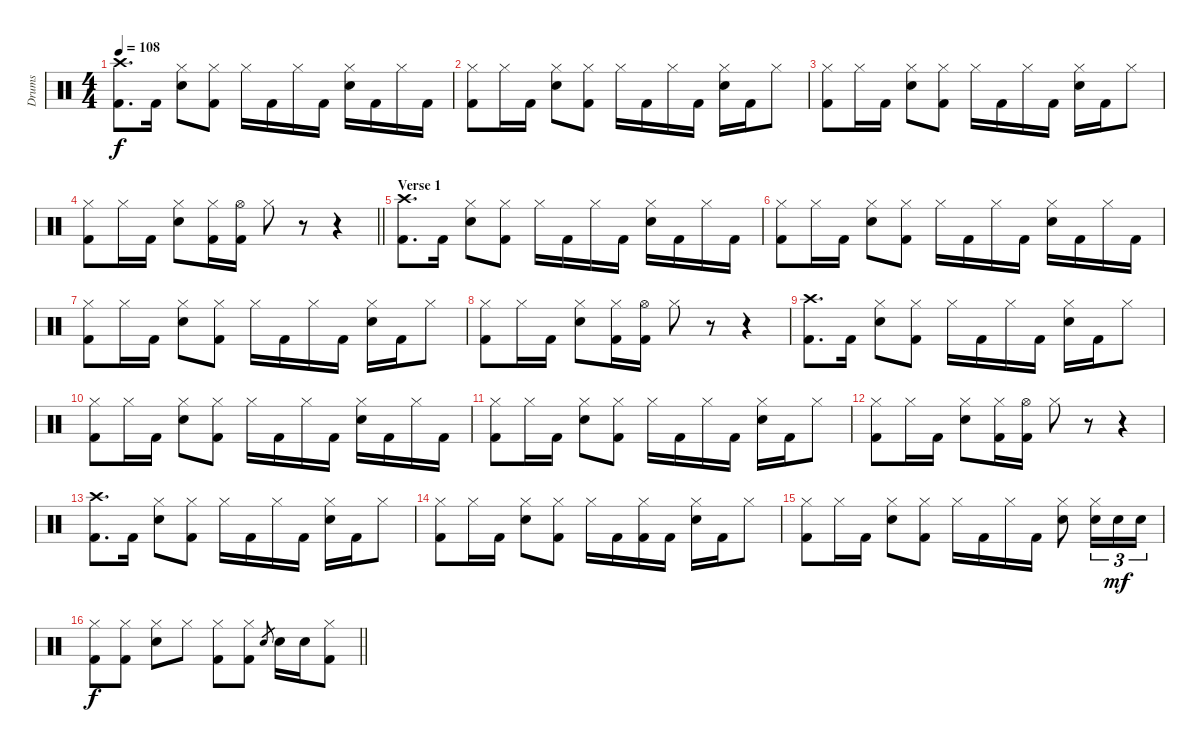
\track ("Drums" "Drums") {instrument percussion}
\staff {score}
\articulation defaults
\ts (4 4)
\tempo 108
\clef neutral
\ks c
("Crash high (hit)" "Kick (hit) 2").8{d dy f} "Kick (hit) 2".16 ("Hi-Hat (closed)" "Electric Snare (hit)").8 ("Hi-Hat (closed)" "Kick (hit) 2").8 "Hi-Hat (closed)".16 "Kick (hit) 2".16 "Hi-Hat (closed)".16 "Kick (hit) 2".16 ("Hi-Hat (closed)" "Electric Snare (hit)").16 "Kick (hit) 2".16 "Hi-Hat (closed)".16 "Kick (hit) 2".16 |
("Hi-Hat (closed)" "Kick (hit) 2").8 "Hi-Hat (closed)".16 "Kick (hit) 2".16 ("Hi-Hat (closed)" "Electric Snare (hit)").8 ("Hi-Hat (closed)" "Kick (hit) 2").8 "Hi-Hat (closed)".16 "Kick (hit) 2".16 "Hi-Hat (closed)".16 "Kick (hit) 2".16 ("Hi-Hat (closed)" "Electric Snare (hit)").16 "Kick (hit) 2".16 "Hi-Hat (closed)".8 |
("Hi-Hat (closed)" "Kick (hit) 2").8 "Hi-Hat (closed)".16 "Kick (hit) 2".16 ("Hi-Hat (closed)" "Electric Snare (hit)").8 ("Hi-Hat (closed)" "Kick (hit) 2").8 "Hi-Hat (closed)".16 "Kick (hit) 2".16 "Hi-Hat (closed)".16 "Kick (hit) 2".16 ("Hi-Hat (closed)" "Electric Snare (hit)").16 "Kick (hit) 2".16 "Hi-Hat (closed)".8 |
\barLineRight lightlight
("Hi-Hat (closed)" "Kick (hit) 2").8 "Hi-Hat (closed)".16 "Kick (hit) 2".16 ("Hi-Hat (closed)" "Electric Snare (hit)").8 ("Hi-Hat (closed)" "Kick (hit) 2").16 ("Hi-Hat (open)" "Kick (hit) 2").16 "Hi-Hat (closed)".8 r.8 r.4 |
\section ("" "Verse 1")
("Crash high (hit)" "Kick (hit) 2").8{d} "Kick (hit) 2".16 ("Hi-Hat (closed)" "Electric Snare (hit)").8 ("Hi-Hat (closed)" "Kick (hit) 2").8 "Hi-Hat (closed)".16 "Kick (hit) 2".16 "Hi-Hat (closed)".16 "Kick (hit) 2".16 ("Hi-Hat (closed)" "Electric Snare (hit)").16 "Kick (hit) 2".16 "Hi-Hat (closed)".16 "Kick (hit) 2".16 |
("Hi-Hat (closed)" "Kick (hit) 2").8 "Hi-Hat (closed)".16 "Kick (hit) 2".16 ("Hi-Hat (closed)" "Electric Snare (hit)").8 ("Hi-Hat (closed)" "Kick (hit) 2").8 "Hi-Hat (closed)".16 "Kick (hit) 2".16 "Hi-Hat (closed)".16 "Kick (hit) 2".16 ("Hi-Hat (closed)" "Electric Snare (hit)").16 "Kick (hit) 2".16 "Hi-Hat (closed)".16 "Kick (hit) 2".16 |
("Hi-Hat (closed)" "Kick (hit) 2").8 "Hi-Hat (closed)".16 "Kick (hit) 2".16 ("Hi-Hat (closed)" "Electric Snare (hit)").8 ("Hi-Hat (closed)" "Kick (hit) 2").8 "Hi-Hat (closed)".16 "Kick (hit) 2".16 "Hi-Hat (closed)".16 "Kick (hit) 2".16 ("Hi-Hat (closed)" "Electric Snare (hit)").16 "Kick (hit) 2".16 "Hi-Hat (closed)".8 |
("Hi-Hat (closed)" "Kick (hit) 2").8 "Hi-Hat (closed)".16 "Kick (hit) 2".16 ("Hi-Hat (closed)" "Electric Snare (hit)").8 ("Hi-Hat (closed)" "Kick (hit) 2").16 ("Hi-Hat (open)" "Kick (hit) 2").16 "Hi-Hat (closed)".8 r.8 r.4 |
("Crash high (hit)" "Kick (hit) 2").8{d} "Kick (hit) 2".16 ("Hi-Hat (closed)" "Electric Snare (hit)").8 ("Hi-Hat (closed)" "Kick (hit) 2").8 "Hi-Hat (closed)".16 "Kick (hit) 2".16 "Hi-Hat (closed)".16 "Kick (hit) 2".16 ("Hi-Hat (closed)" "Electric Snare (hit)").16 "Kick (hit) 2".16 "Hi-Hat (closed)".8 |
("Hi-Hat (closed)" "Kick (hit) 2").8 "Hi-Hat (closed)".16 "Kick (hit) 2".16 ("Hi-Hat (closed)" "Electric Snare (hit)").8 ("Hi-Hat (closed)" "Kick (hit) 2").8 "Hi-Hat (closed)".16 "Kick (hit) 2".16 "Hi-Hat (closed)".16 "Kick (hit) 2".16 ("Hi-Hat (closed)" "Electric Snare (hit)").16 "Kick (hit) 2".16 "Hi-Hat (closed)".16 "Kick (hit) 2".16 |
("Hi-Hat (closed)" "Kick (hit) 2").8 "Hi-Hat (closed)".16 "Kick (hit) 2".16 ("Hi-Hat (closed)" "Electric Snare (hit)").8 ("Hi-Hat (closed)" "Kick (hit) 2").8 "Hi-Hat (closed)".16 "Kick (hit) 2".16 "Hi-Hat (closed)".16 "Kick (hit) 2".16 ("Hi-Hat (closed)" "Electric Snare (hit)").16 "Kick (hit) 2".16 "Hi-Hat (closed)".8 |
("Hi-Hat (closed)" "Kick (hit) 2").8 "Hi-Hat (closed)".16 "Kick (hit) 2".16 ("Hi-Hat (closed)" "Electric Snare (hit)").8 ("Hi-Hat (closed)" "Kick (hit) 2").16 ("Hi-Hat (open)" "Kick (hit) 2").16 "Hi-Hat (closed)".8 r.8 r.4 |
("Crash high (hit)" "Kick (hit) 2").8{d} "Kick (hit) 2".16 ("Hi-Hat (closed)" "Electric Snare (hit)").8 ("Hi-Hat (closed)" "Kick (hit) 2").8 "Hi-Hat (closed)".16 "Kick (hit) 2".16 "Hi-Hat (closed)".16 "Kick (hit) 2".16 ("Hi-Hat (closed)" "Electric Snare (hit)").16 "Kick (hit) 2".16 "Hi-Hat (closed)".8 |
("Hi-Hat (closed)" "Kick (hit) 2").8 "Hi-Hat (closed)".16 "Kick (hit) 2".16 ("Hi-Hat (closed)" "Electric Snare (hit)").8 ("Hi-Hat (closed)" "Kick (hit) 2").8 "Hi-Hat (closed)".16 "Kick (hit) 2".16 ("Hi-Hat (closed)" "Kick (hit) 2").16 "Kick (hit) 2".16 ("Hi-Hat (closed)" "Electric Snare (hit)").16 "Kick (hit) 2".16 "Hi-Hat (closed)".8 |
("Hi-Hat (closed)" "Kick (hit) 2").8 "Hi-Hat (closed)".16 "Kick (hit) 2".16 ("Hi-Hat (closed)" "Electric Snare (hit)").8 ("Hi-Hat (closed)" "Kick (hit) 2").8 "Hi-Hat (closed)".16 "Kick (hit) 2".16 "Hi-Hat (closed)".16 "Kick (hit) 2".16 ("Hi-Hat (closed)" "Electric Snare (hit)").8 ("Hi-Hat (closed)" "Electric Snare (hit)").16{tu (3 2)} "Electric Snare (hit)".16{tu (3 2) dy mf} "Electric Snare (hit)".16{tu (3 2)} |
\barLineRight lightlight
("Hi-Hat (closed)" "Kick (hit) 2").8{dy f} ("Hi-Hat (closed)" "Kick (hit) 2").8 ("Hi-Hat (closed)" "Electric Snare (hit)").8 "Hi-Hat (closed)".8 ("Hi-Hat (closed)" "Kick (hit) 2").8 ("Hi-Hat (closed)" "Kick (hit) 2").8 "Electric Snare (hit)".8{gr} "Electric Snare (hit)".16 "Electric Snare (hit)".16 ("Hi-Hat (closed)" "Kick (hit) 2").8
